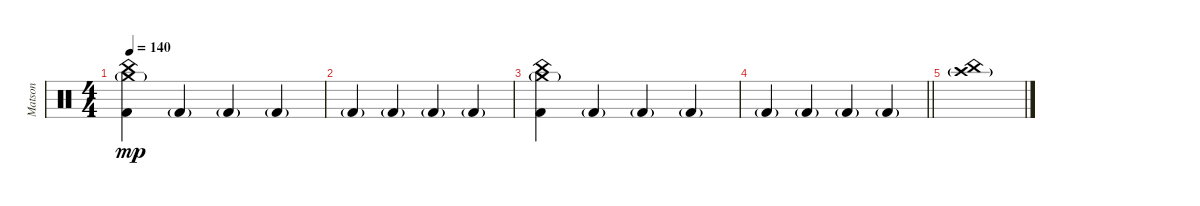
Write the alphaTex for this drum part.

\track ("Matson" "Matson") {instrument percussion}
\staff {score}
\articulation defaults
\ts (4 4)
\tempo 140
\clef neutral
\ks c
("Kick (hit) 2" "China (hit)" "Crash medium (hit)"{g}).4{dy mp} "Kick (hit) 2"{g}.4 "Kick (hit) 2"{g}.4 "Kick (hit) 2"{g}.4 |
"Kick (hit) 2"{g}.4 "Kick (hit) 2"{g}.4 "Kick (hit) 2"{g}.4 "Kick (hit) 2"{g}.4 |
("Kick (hit) 2" "China (hit)" "Crash medium (hit)"{g}).4 "Kick (hit) 2"{g}.4 "Kick (hit) 2"{g}.4 "Kick (hit) 2"{g}.4 |
\barLineRight lightlight "Kick (hit) 2"{g}.4 "Kick (hit) 2"{g}.4 "Kick (hit) 2"{g}.4 "Kick (hit) 2"{g}.4
|
("China (hit)" "Crash high (hit)"{g}).1
